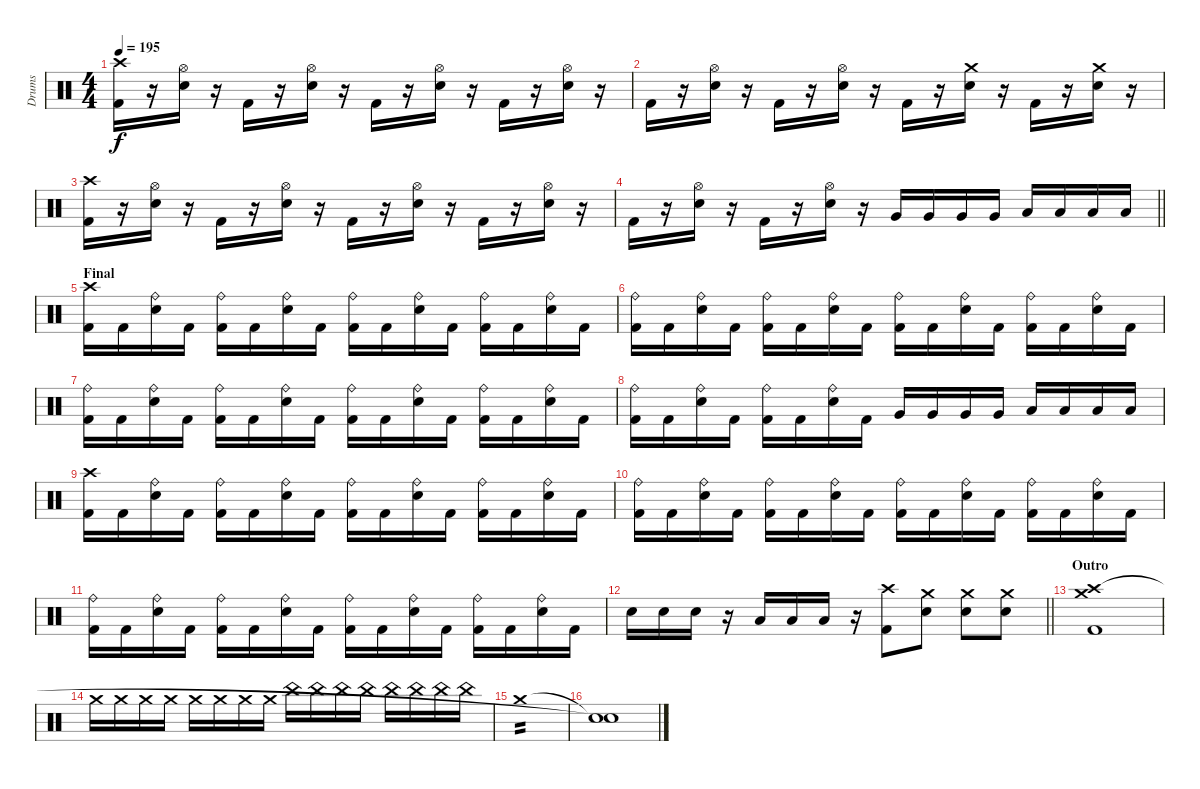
\track ("Drums" "Drums") {instrument percussion}
\staff {score}
\articulation defaults
\ts (4 4)
\tempo 195
\clef neutral
\ks c
("Crash high (hit)" "Kick (hit) 2").16{dy f} r.16 ("Hi-Hat (open)" "Electric Snare (hit)").16 r.16 "Kick (hit) 2".16 r.16 ("Hi-Hat (open)" "Electric Snare (hit)").16 r.16 "Kick (hit) 2".16 r.16 ("Hi-Hat (open)" "Electric Snare (hit)").16 r.16 "Kick (hit) 2".16 r.16 ("Hi-Hat (open)" "Electric Snare (hit)").16 r.16 |
"Kick (hit) 2".16 r.16 ("Hi-Hat (open)" "Electric Snare (hit)").16 r.16 "Kick (hit) 2".16 r.16 ("Hi-Hat (open)" "Electric Snare (hit)").16 r.16 "Kick (hit) 2".16 r.16 ("Crash medium (hit)" "Electric Snare (hit)").16 r.16 "Kick (hit) 2".16 r.16 ("Crash medium (hit)" "Electric Snare (hit)").16 r.16 |
("Crash high (hit)" "Kick (hit) 2").16 r.16 ("Hi-Hat (open)" "Electric Snare (hit)").16 r.16 "Kick (hit) 2".16 r.16 ("Hi-Hat (open)" "Electric Snare (hit)").16 r.16 "Kick (hit) 2".16 r.16 ("Hi-Hat (open)" "Electric Snare (hit)").16 r.16 "Kick (hit) 2".16 r.16 ("Hi-Hat (open)" "Electric Snare (hit)").16 r.16 |
\barLineRight lightlight "Kick (hit) 2".16
r.16 ("Hi-Hat (open)" "Electric Snare (hit)").16 r.16 "Kick (hit) 2".16 r.16 ("Hi-Hat (open)" "Electric Snare (hit)").16 r.16 "Very Low Tom (hit)".16 "Very Low Tom (hit)".16 "Very Low Tom (hit)".16 "Very Low Tom (hit)".16 "Low Floor Tom (hit)".16 "Low Floor Tom (hit)".16 "Low Floor Tom (hit)".16 "Low Floor Tom (hit)".16 |
\section ("" "Final")
("Crash high (hit)" "Kick (hit) 2").16 "Kick (hit) 2".16 ("Ride (bell)" "Electric Snare (hit)").16 "Kick (hit) 2".16 ("Ride (bell)" "Kick (hit) 2").16 "Kick (hit) 2".16 ("Ride (bell)" "Electric Snare (hit)").16 "Kick (hit) 2".16 ("Ride (bell)" "Kick (hit) 2").16 "Kick (hit) 2".16 ("Ride (bell)" "Electric Snare (hit)").16 "Kick (hit) 2".16 ("Ride (bell)" "Kick (hit) 2").16 "Kick (hit) 2".16 ("Ride (bell)" "Electric Snare (hit)").16 "Kick (hit) 2".16 |
("Ride (bell)" "Kick (hit) 2").16 "Kick (hit) 2".16 ("Ride (bell)" "Electric Snare (hit)").16 "Kick (hit) 2".16 ("Ride (bell)" "Kick (hit) 2").16 "Kick (hit) 2".16 ("Ride (bell)" "Electric Snare (hit)").16 "Kick (hit) 2".16 ("Ride (bell)" "Kick (hit) 2").16 "Kick (hit) 2".16 ("Ride (bell)" "Electric Snare (hit)").16 "Kick (hit) 2".16 ("Ride (bell)" "Kick (hit) 2").16 "Kick (hit) 2".16 ("Ride (bell)" "Electric Snare (hit)").16 "Kick (hit) 2".16 |
("Ride (bell)" "Kick (hit) 2").16 "Kick (hit) 2".16 ("Ride (bell)" "Electric Snare (hit)").16 "Kick (hit) 2".16 ("Ride (bell)" "Kick (hit) 2").16 "Kick (hit) 2".16 ("Ride (bell)" "Electric Snare (hit)").16 "Kick (hit) 2".16 ("Ride (bell)" "Kick (hit) 2").16 "Kick (hit) 2".16 ("Ride (bell)" "Electric Snare (hit)").16 "Kick (hit) 2".16 ("Ride (bell)" "Kick (hit) 2").16 "Kick (hit) 2".16 ("Ride (bell)" "Electric Snare (hit)").16 "Kick (hit) 2".16 |
("Ride (bell)" "Kick (hit) 2").16 "Kick (hit) 2".16 ("Ride (bell)" "Electric Snare (hit)").16 "Kick (hit) 2".16 ("Ride (bell)" "Kick (hit) 2").16 "Kick (hit) 2".16 ("Ride (bell)" "Electric Snare (hit)").16 "Kick (hit) 2".16 "Very Low Tom (hit)".16 "Very Low Tom (hit)".16 "Very Low Tom (hit)".16 "Very Low Tom (hit)".16 "Low Floor Tom (hit)".16 "Low Floor Tom (hit)".16 "Low Floor Tom (hit)".16 "Low Floor Tom (hit)".16 |
("Crash high (hit)" "Kick (hit) 2").16 "Kick (hit) 2".16 ("Ride (bell)" "Electric Snare (hit)").16 "Kick (hit) 2".16 ("Ride (bell)" "Kick (hit) 2").16 "Kick (hit) 2".16 ("Ride (bell)" "Electric Snare (hit)").16 "Kick (hit) 2".16 ("Ride (bell)" "Kick (hit) 2").16 "Kick (hit) 2".16 ("Ride (bell)" "Electric Snare (hit)").16 "Kick (hit) 2".16 ("Ride (bell)" "Kick (hit) 2").16 "Kick (hit) 2".16 ("Ride (bell)" "Electric Snare (hit)").16 "Kick (hit) 2".16 |
("Ride (bell)" "Kick (hit) 2").16 "Kick (hit) 2".16 ("Ride (bell)" "Electric Snare (hit)").16 "Kick (hit) 2".16 ("Ride (bell)" "Kick (hit) 2").16 "Kick (hit) 2".16 ("Ride (bell)" "Electric Snare (hit)").16 "Kick (hit) 2".16 ("Ride (bell)" "Kick (hit) 2").16 "Kick (hit) 2".16 ("Ride (bell)" "Electric Snare (hit)").16 "Kick (hit) 2".16 ("Ride (bell)" "Kick (hit) 2").16 "Kick (hit) 2".16 ("Ride (bell)" "Electric Snare (hit)").16 "Kick (hit) 2".16 |
("Ride (bell)" "Kick (hit) 2").16 "Kick (hit) 2".16 ("Ride (bell)" "Electric Snare (hit)").16 "Kick (hit) 2".16 ("Ride (bell)" "Kick (hit) 2").16 "Kick (hit) 2".16 ("Ride (bell)" "Electric Snare (hit)").16 "Kick (hit) 2".16 ("Ride (bell)" "Kick (hit) 2").16 "Kick (hit) 2".16 ("Ride (bell)" "Electric Snare (hit)").16 "Kick (hit) 2".16 ("Ride (bell)" "Kick (hit) 2").16 "Kick (hit) 2".16 ("Ride (bell)" "Electric Snare (hit)").16 "Kick (hit) 2".16 |
\barLineRight lightlight "Electric Snare (hit)".16 "Electric Snare (hit)".16 "Electric Snare (hit)".16
r.16 "Low Tom (hit)".16 "Low Tom (hit)".16 "Low Tom (hit)".16 r.16 ("Crash high (hit)" "Kick (hit) 2").8 ("Crash medium (hit)" "Electric Snare (hit)").8 ("Crash medium (hit)" "Electric Snare (hit)").8 ("Crash medium (hit)" "Electric Snare (hit)").8 |
\section ("" "Outro")
("Crash medium (hit)" "Crash high (hit)" "Kick (hit) 2").1 |
"Crash medium (hit)".16 "Crash medium (hit)".16 "Crash medium (hit)".16 "Crash medium (hit)".16 "Crash medium (hit)".16 "Crash medium (hit)".16 "Crash medium (hit)".16 "Crash medium (hit)".16 "China (hit)".16 "China (hit)".16 "China (hit)".16 "China (hit)".16 "China (hit)".16 "China (hit)".16 "China (hit)".16 "China (hit)".16 |
"Crash medium (hit)".1{tp 2} |
("Snare (hit)"{t} "Snare (hit)"{t}).1
